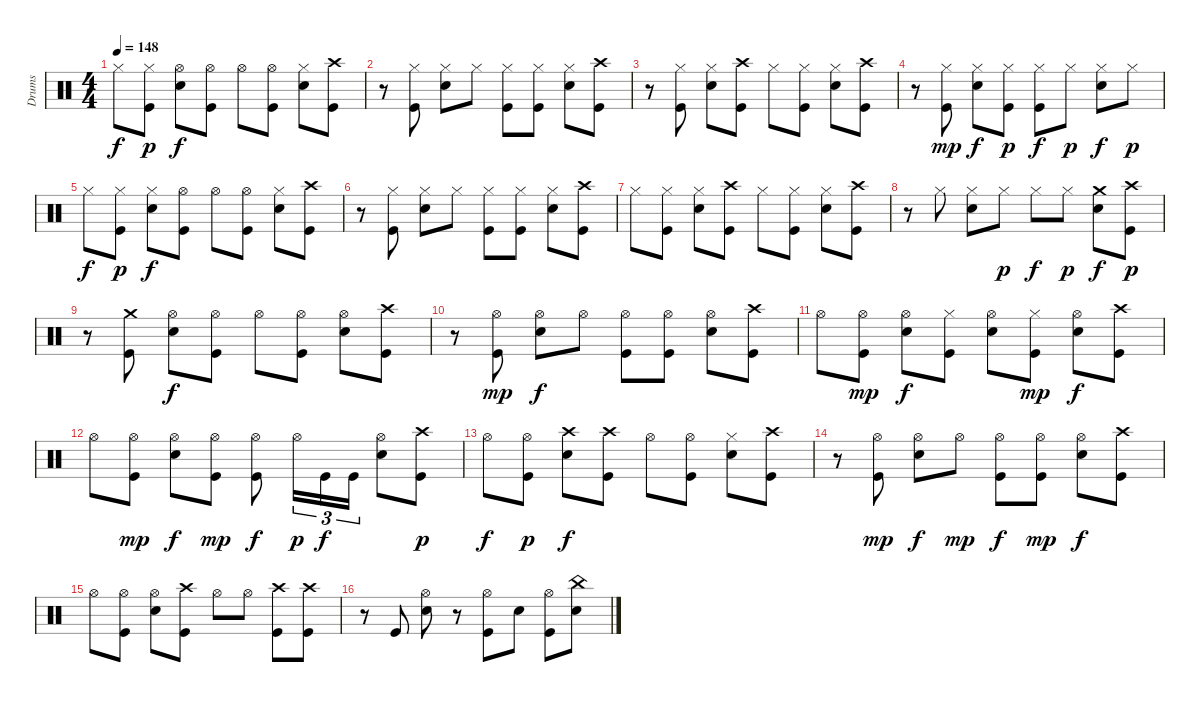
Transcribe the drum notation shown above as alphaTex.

\track ("Drums" "Drums") {instrument percussion}
\staff {score}
\articulation defaults
\ts (4 4)
\tempo 148
\clef neutral
\ks c "Hi-Hat (closed)".8{dy f}
("Hi-Hat (closed)" "Kick (hit)").8{dy p} ("Hi-Hat (open)" "Snare (hit) 2").8{dy f} ("Hi-Hat (open)" "Kick (hit)").8 "Hi-Hat (open)".8 ("Hi-Hat (open)" "Kick (hit)").8 ("Hi-Hat (closed)" "Snare (hit) 2").8 ("Crash high (hit)" "Kick (hit)").8 |
r.8 ("Hi-Hat (closed)" "Kick (hit)").8 ("Hi-Hat (closed)" "Snare (hit) 2").8 "Hi-Hat (closed)".8 ("Hi-Hat (closed)" "Kick (hit)").8 ("Hi-Hat (closed)" "Kick (hit)").8 ("Hi-Hat (closed)" "Snare (hit) 2").8 ("Crash high (hit)" "Kick (hit)").8 |
r.8 ("Hi-Hat (closed)" "Kick (hit)").8 ("Hi-Hat (closed)" "Snare (hit) 2").8 ("Crash high (hit)" "Kick (hit)").8 "Hi-Hat (closed)".8 ("Hi-Hat (closed)" "Kick (hit)").8 ("Hi-Hat (closed)" "Snare (hit) 2").8 ("Crash high (hit)" "Kick (hit)").8 |
r.8 ("Hi-Hat (closed)" "Kick (hit)").8{dy mp} ("Hi-Hat (closed)" "Snare (hit) 2").8{dy f} ("Hi-Hat (closed)" "Kick (hit)").8{dy p} ("Hi-Hat (closed)" "Kick (hit)").8{dy f} "Hi-Hat (closed)".8{dy p} ("Hi-Hat (closed)" "Snare (hit) 2").8{dy f} "Hi-Hat (closed)".8{dy p} |
"Hi-Hat (closed)".8{dy f} ("Hi-Hat (closed)" "Kick (hit)").8{dy p} ("Hi-Hat (closed)" "Snare (hit) 2").8{dy f} ("Hi-Hat (open)" "Kick (hit)").8 "Hi-Hat (open)".8 ("Hi-Hat (open)" "Kick (hit)").8 ("Hi-Hat (closed)" "Snare (hit) 2").8 ("Crash high (hit)" "Kick (hit)").8 |
r.8 ("Hi-Hat (closed)" "Kick (hit)").8 ("Hi-Hat (closed)" "Snare (hit) 2").8 "Hi-Hat (closed)".8 ("Hi-Hat (closed)" "Kick (hit)").8 ("Hi-Hat (closed)" "Kick (hit)").8 ("Hi-Hat (closed)" "Snare (hit) 2").8 ("Crash high (hit)" "Kick (hit)").8 |
"Hi-Hat (closed)".8 ("Hi-Hat (closed)" "Kick (hit)").8 ("Hi-Hat (closed)" "Snare (hit) 2").8 ("Crash high (hit)" "Kick (hit)").8 "Hi-Hat (closed)".8 ("Hi-Hat (closed)" "Kick (hit)").8 ("Hi-Hat (closed)" "Snare (hit) 2").8 ("Crash high (hit)" "Kick (hit)").8 |
r.8 "Hi-Hat (closed)".8 ("Hi-Hat (closed)" "Snare (hit) 2").8 "Hi-Hat (closed)".8{dy p} "Hi-Hat (closed)".8{dy f} "Hi-Hat (closed)".8{dy p} ("Crash medium (hit)" "Snare (hit) 2").8{dy f} ("Crash high (hit)" "Kick (hit)").8{dy p} |
r.8 ("Crash medium (hit)" "Kick (hit)").8 ("Hi-Hat (open)" "Snare (hit) 2").8{dy f} ("Hi-Hat (open)" "Kick (hit)").8 "Hi-Hat (open)".8 ("Hi-Hat (open)" "Kick (hit)").8 ("Hi-Hat (open)" "Snare (hit) 2").8 ("Crash high (hit)" "Kick (hit)").8 |
r.8 ("Hi-Hat (open)" "Kick (hit)").8{dy mp} ("Hi-Hat (open)" "Snare (hit) 2").8{dy f} "Hi-Hat (open)".8 ("Hi-Hat (open)" "Kick (hit)").8 ("Hi-Hat (open)" "Kick (hit)").8 ("Hi-Hat (open)" "Snare (hit) 2").8 ("Crash high (hit)" "Kick (hit)").8 |
"Hi-Hat (open)".8 ("Hi-Hat (open)" "Kick (hit)").8{dy mp} ("Hi-Hat (open)" "Snare (hit) 2").8{dy f} ("Hi-Hat (closed)" "Kick (hit)").8 ("Hi-Hat (open)" "Snare (hit) 2").8 ("Hi-Hat (closed)" "Kick (hit)").8{dy mp} ("Hi-Hat (open)" "Snare (hit) 2").8{dy f} ("Crash high (hit)" "Kick (hit)").8 |
"Hi-Hat (open)".8 ("Hi-Hat (open)" "Kick (hit)").8{dy mp} ("Hi-Hat (open)" "Snare (hit) 2").8{dy f} ("Hi-Hat (open)" "Kick (hit)").8{dy mp} ("Hi-Hat (open)" "Kick (hit)").8{dy f} "Hi-Hat (open)".16{tu (3 2) dy p} "Kick (hit)".16{tu (3 2) dy f} "Kick (hit)".16{tu (3 2)} ("Hi-Hat (open)" "Snare (hit) 2").8 ("Crash high (hit)" "Kick (hit)").8{dy p} |
"Hi-Hat (open)".8{dy f} ("Hi-Hat (open)" "Kick (hit)").8{dy p} ("Crash high (hit)" "Snare (hit) 2").8{dy f} ("Crash high (hit)" "Kick (hit)").8 "Hi-Hat (open)".8 ("Hi-Hat (open)" "Kick (hit)").8 ("Hi-Hat (closed)" "Snare (hit) 2").8 ("Crash high (hit)" "Kick (hit)").8 |
r.8 ("Hi-Hat (open)" "Kick (hit)").8{dy mp} ("Hi-Hat (open)" "Snare (hit) 2").8{dy f} "Hi-Hat (open)".8{dy mp} ("Hi-Hat (open)" "Kick (hit)").8{dy f} ("Hi-Hat (open)" "Kick (hit)").8{dy mp} ("Hi-Hat (open)" "Snare (hit) 2").8{dy f} ("Crash high (hit)" "Kick (hit)").8 |
"Hi-Hat (open)".8 ("Hi-Hat (open)" "Kick (hit)").8 ("Hi-Hat (open)" "Snare (hit) 2").8 ("Crash high (hit)" "Kick (hit)").8 "Hi-Hat (open)".8 "Hi-Hat (open)".8 ("Crash high (hit)" "Kick (hit)").8 ("Crash high (hit)" "Kick (hit)").8 |
r.8 "Kick (hit)".8 ("Hi-Hat (open)" "Snare (hit) 2").8 r.8 ("Hi-Hat (open)" "Kick (hit)").8 "Snare (hit) 2".8 ("Hi-Hat (open)" "Kick (hit)").8 ("China (hit)" "Snare (hit) 2").8
